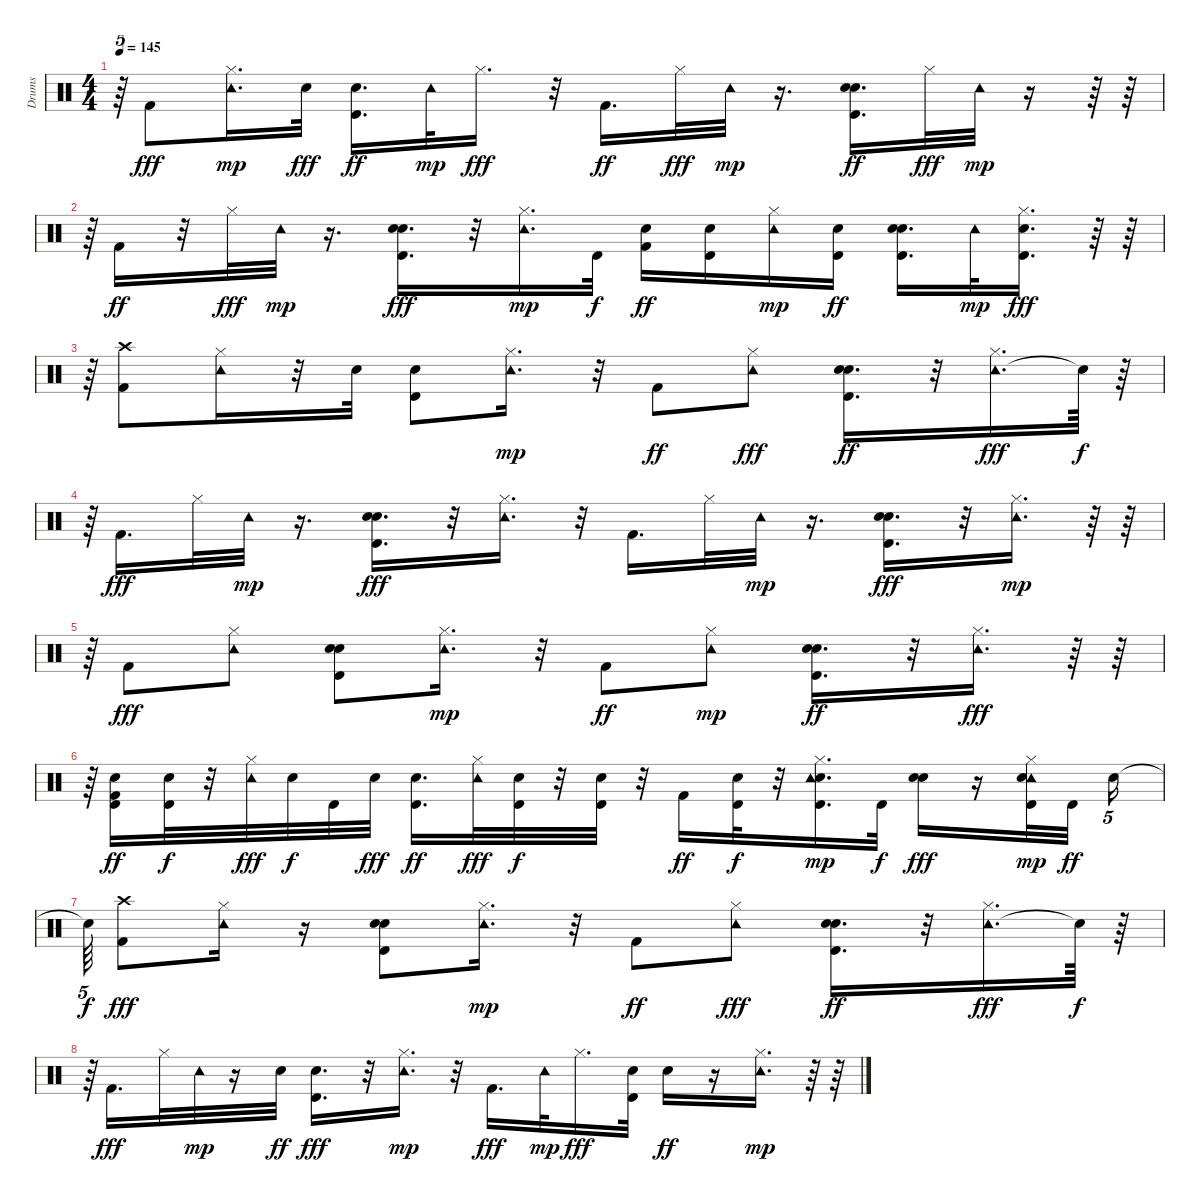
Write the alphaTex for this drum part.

\track ("Drums" "Drums") {instrument percussion}
\staff {score}
\articulation defaults
\ts (4 4)
\tempo 145
\clef neutral
\ks c
r.64{tu (5 4) dy mp} "Kick (hit) 2".8{dy fff} ("Hi-Hat (closed)" "Tambourine (hit)").16{d dy mp} "Hand Clap (hit)".32{dy fff} ("Timbale high (hit)" "Snare (hit) 2").16{d dy ff} "Tambourine (hit)".32{dy mp} "Hi-Hat (closed)".16{d dy fff} r.32 "Kick (hit) 2".16{d dy ff} "Hi-Hat (closed)".32{dy fff} "Tambourine (hit)".32{dy mp} r.16{d} ("Hand Clap (hit)" "Snare (hit) 2" "Timbale high (hit)").16{d dy ff} "Hi-Hat (closed)".32{dy fff} "Tambourine (hit)".32{dy mp} r.16 r.64 r.64 |
r.64{tu (5 4)} "Kick (hit) 2".16{dy ff} r.32 "Hi-Hat (closed)".32{dy fff} "Tambourine (hit)".32{dy mp} r.16{d} ("Snare (hit) 2" "Hand Clap (hit)" "Timbale high (hit)").16{d dy fff} r.32 ("Hi-Hat (closed)" "Tambourine (hit)").16{d dy mp} "Timbale high (hit)".32{dy f} ("Kick (hit) 2" "Snare (hit) 2").16{dy ff} ("Timbale high (hit)" "Snare (hit) 2").16 ("Hi-Hat (closed)" "Tambourine (hit)").16{dy mp} ("Timbale high (hit)" "Snare (hit) 2").16{dy ff} ("Timbale high (hit)" "Hand Clap (hit)" "Snare (hit) 2").16{d} "Tambourine (hit)".32{dy mp} ("Snare (hit) 2" "Timbale high (hit)" "Hi-Hat (closed)").16{d dy fff} r.64 r.64 |
r.64{tu (5 4)} ("Kick (hit) 2" "Crash high (hit)").8 ("Tambourine (hit)" "Hi-Hat (closed)").16 r.32 "Hand Clap (hit)".32 ("Snare (hit) 2" "Timbale high (hit)").8 ("Hi-Hat (closed)" "Tambourine (hit)").16{d dy mp} r.32 "Kick (hit) 2".8{dy ff} ("Tambourine (hit)" "Hi-Hat (closed)").8{dy fff} ("Hand Clap (hit)" "Snare (hit) 2" "Timbale high (hit)").16{d dy ff} r.32 ("Tambourine (hit)" "Hi-Hat (closed)").16{d dy fff} "Snare (hit)"{t}.64{dy f} r.64 |
r.64{tu (5 4)} "Kick (hit) 2".16{d dy fff} "Hi-Hat (closed)".32 "Tambourine (hit)".32{dy mp} r.16{d} ("Timbale high (hit)" "Snare (hit) 2" "Hand Clap (hit)").16{d dy fff} r.32 ("Tambourine (hit)" "Hi-Hat (closed)").16{d} r.32 "Kick (hit) 2".16{d} "Hi-Hat (closed)".32 "Tambourine (hit)".32{dy mp} r.16{d} ("Snare (hit) 2" "Timbale high (hit)" "Hand Clap (hit)").16{d dy fff} r.32 ("Hi-Hat (closed)" "Tambourine (hit)").16{d dy mp} r.64 r.64 |
r.64{tu (5 4)} "Kick (hit) 2".8{dy fff} ("Tambourine (hit)" "Hi-Hat (closed)").8 ("Snare (hit) 2" "Timbale high (hit)" "Hand Clap (hit)").8 ("Hi-Hat (closed)" "Tambourine (hit)").16{d dy mp} r.32 "Kick (hit) 2".8{dy ff} ("Hi-Hat (closed)" "Tambourine (hit)").8{dy mp} ("Hand Clap (hit)" "Snare (hit) 2" "Timbale high (hit)").16{d dy ff} r.32 ("Tambourine (hit)" "Hi-Hat (closed)").16{d dy fff} r.64 r.64 |
r.64{tu (5 4)} ("Snare (hit) 2" "Kick (hit) 2" "Timbale high (hit)").16{dy ff} ("Snare (hit) 2" "Timbale high (hit)").32{dy f} r.32 ("Tambourine (hit)" "Hi-Hat (closed)").32{dy fff} "Snare (hit) 2".32{dy f} "Timbale high (hit)".32 "Hand Clap (hit)".32{dy fff} ("Snare (hit) 2" "Timbale high (hit)").16{d dy ff} ("Tambourine (hit)" "Hi-Hat (closed)").32{dy fff} ("Snare (hit) 2" "Timbale high (hit)").32{dy f} r.32 ("Timbale high (hit)" "Snare (hit) 2").32 r.32 "Kick (hit) 2".16{dy ff} ("Snare (hit) 2" "Timbale high (hit)").32{dy f} r.32 ("Timbale high (hit)" "Snare (hit) 2" "Hi-Hat (closed)" "Tambourine (hit)").16{d dy mp} "Timbale high (hit)".32{dy f} ("Snare (hit) 2" "Hand Clap (hit)").16{dy fff} r.16 ("Timbale high (hit)" "Hi-Hat (closed)" "Tambourine (hit)" "Snare (hit) 2").32{dy mp} "Timbale high (hit)".32{dy ff} "Snare (hit) 2".16{tu (5 4)} |
"Snare (hit)"{t}.64{tu (5 4) dy f} ("Kick (hit) 2" "Crash high (hit)").8{dy fff} ("Tambourine (hit)" "Hi-Hat (closed)").16 r.16 ("Timbale high (hit)" "Snare (hit) 2" "Hand Clap (hit)").8 ("Hi-Hat (closed)" "Tambourine (hit)").16{d dy mp} r.32 "Kick (hit) 2".8{dy ff} ("Tambourine (hit)" "Hi-Hat (closed)").8{dy fff} ("Hand Clap (hit)" "Snare (hit) 2" "Timbale high (hit)").16{d dy ff} r.32 ("Tambourine (hit)" "Hi-Hat (closed)").16{d dy fff} "Snare (hit)"{t}.64{dy f} r.64 |
r.64{tu (5 4)} "Kick (hit) 2".16{d dy fff} "Hi-Hat (closed)".32 "Tambourine (hit)".32{dy mp} r.16 "Snare (hit) 2".32{dy ff} ("Timbale high (hit)" "Hand Clap (hit)").16{d dy fff} r.32 ("Hi-Hat (closed)" "Tambourine (hit)").16{d dy mp} r.32 "Kick (hit) 2".16{d dy fff} "Tambourine (hit)".32{dy mp} "Hi-Hat (closed)".16{d dy fff} ("Timbale high (hit)" "Hand Clap (hit)").32 "Snare (hit) 2".16{dy ff} r.16 ("Hi-Hat (closed)" "Tambourine (hit)").16{d dy mp} r.64 r.64
